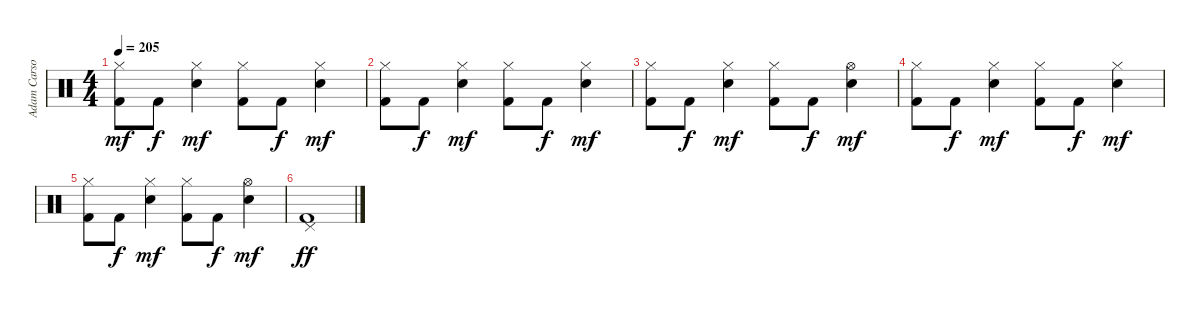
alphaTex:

\track ("Adam Carson" "Adam Carso") {instrument percussion}
\staff {score}
\articulation defaults
\ts (4 4)
\tempo 205
\clef neutral
\ks aminor
("Hi-Hat (closed)" "Kick (hit) 2").8{dy mf} "Kick (hit) 2".8{dy f} ("Hi-Hat (closed)" "Snare (hit) 2").4{dy mf} ("Hi-Hat (closed)" "Kick (hit) 2").8 "Kick (hit) 2".8{dy f} ("Hi-Hat (closed)" "Snare (hit) 2").4{dy mf} |
("Hi-Hat (closed)" "Kick (hit) 2").8 "Kick (hit) 2".8{dy f} ("Hi-Hat (closed)" "Snare (hit) 2").4{dy mf} ("Hi-Hat (closed)" "Kick (hit) 2").8 "Kick (hit) 2".8{dy f} ("Hi-Hat (closed)" "Snare (hit) 2").4{dy mf} |
("Hi-Hat (closed)" "Kick (hit) 2").8 "Kick (hit) 2".8{dy f} ("Hi-Hat (closed)" "Snare (hit) 2").4{dy mf} ("Hi-Hat (closed)" "Kick (hit) 2").8 "Kick (hit) 2".8{dy f} ("Hi-Hat (open)" "Snare (hit) 2").4{dy mf} |
("Hi-Hat (closed)" "Kick (hit) 2").8 "Kick (hit) 2".8{dy f} ("Hi-Hat (closed)" "Snare (hit) 2").4{dy mf} ("Hi-Hat (closed)" "Kick (hit) 2").8 "Kick (hit) 2".8{dy f} ("Hi-Hat (closed)" "Snare (hit) 2").4{dy mf} |
("Hi-Hat (closed)" "Kick (hit) 2").8 "Kick (hit) 2".8{dy f} ("Hi-Hat (closed)" "Snare (hit) 2").4{dy mf} ("Hi-Hat (closed)" "Kick (hit) 2").8 "Kick (hit) 2".8{dy f} ("Hi-Hat (open)" "Snare (hit) 2").4{dy mf} |
("Pedal Hi-Hat (hit)" "Kick (hit) 2").1{dy ff}
